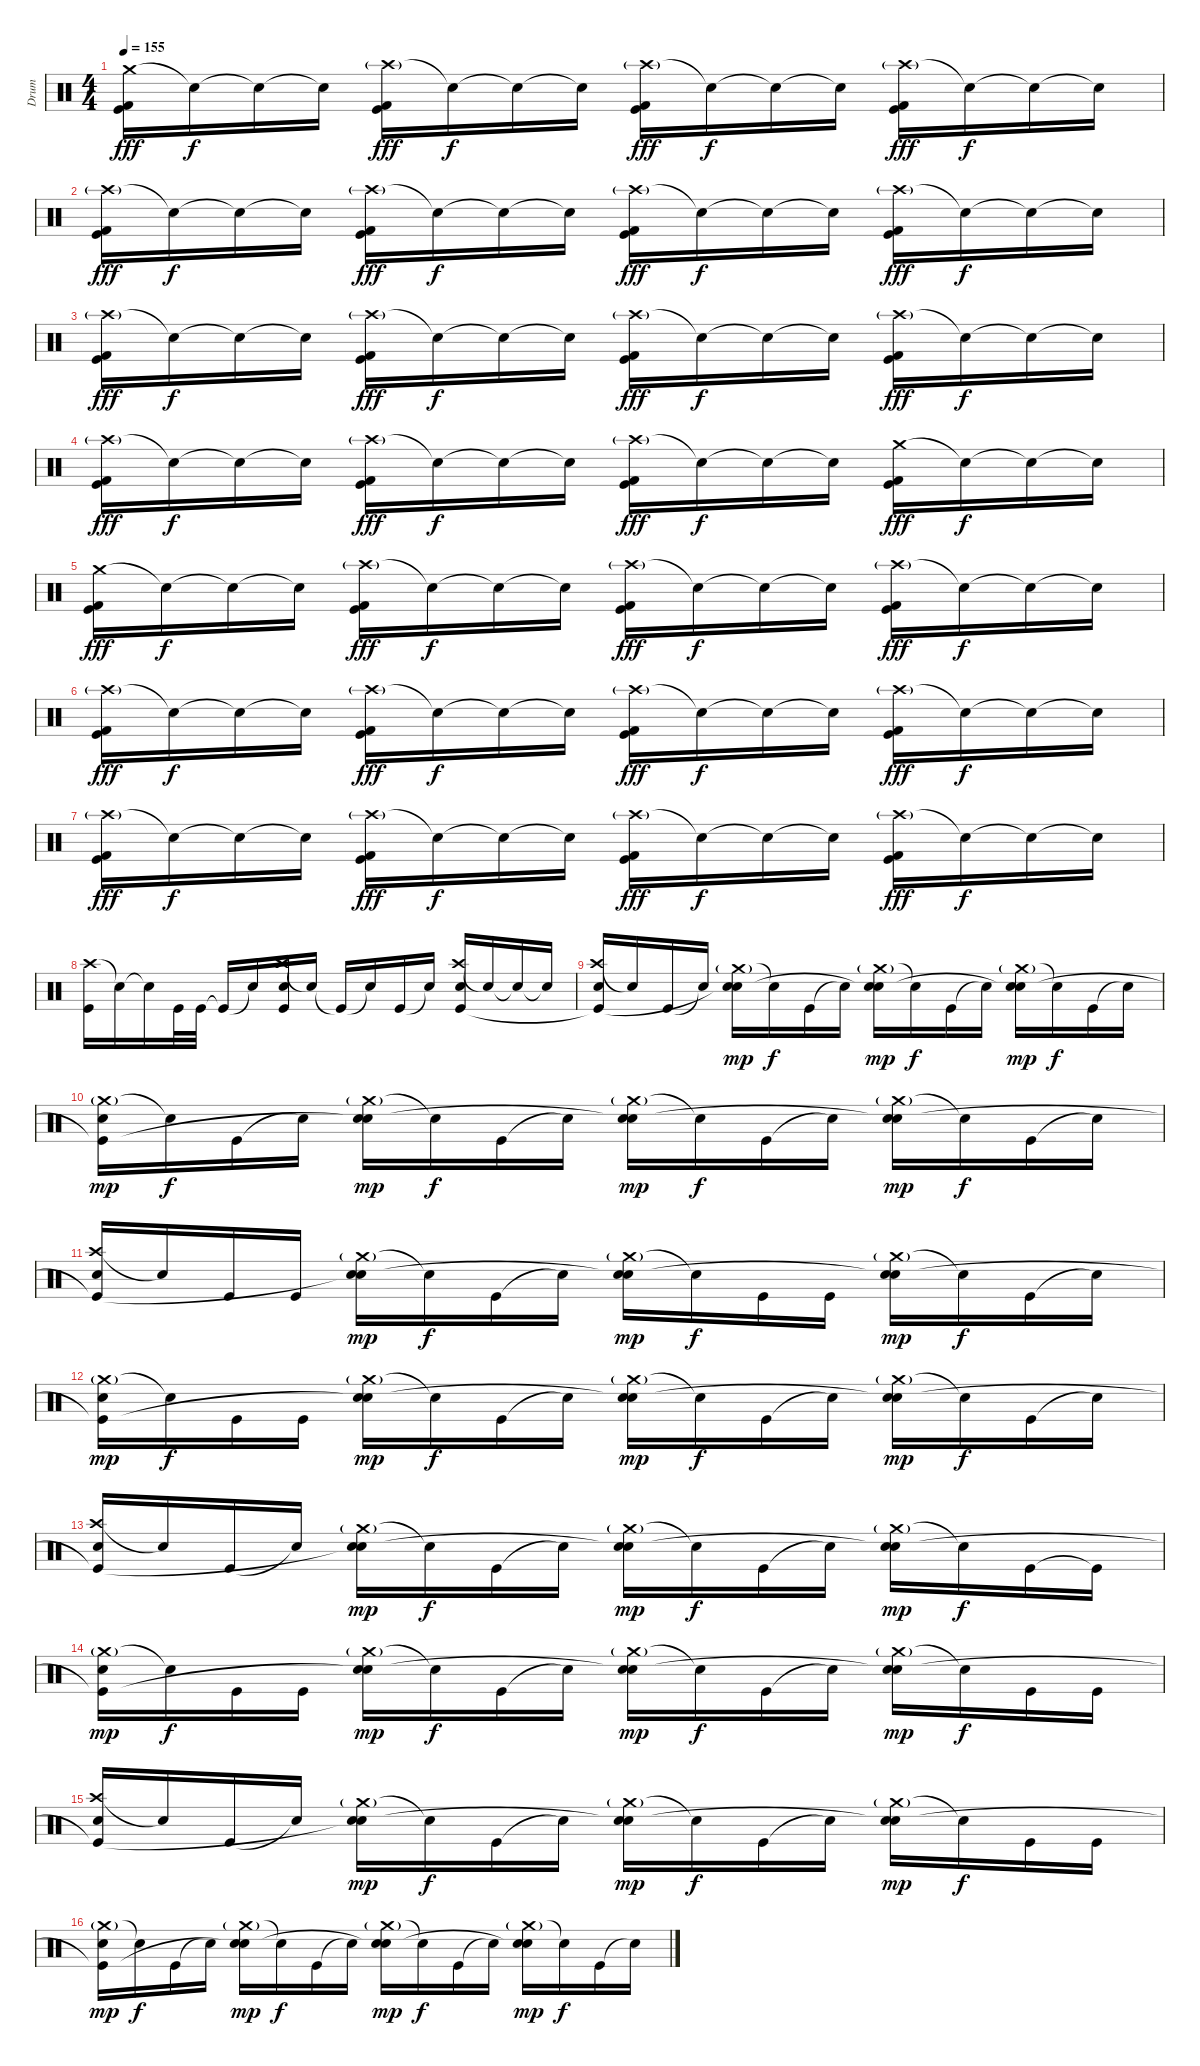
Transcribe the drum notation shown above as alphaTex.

\track ("Drum" "Drum") {instrument percussion}
\staff {score}
\articulation defaults
\ts (4 4)
\tempo 155
\clef neutral
\ks c
("Crash medium (hit)" "Kick (hit) 2" "Kick (hit)").16{dy fff} "Snare (hit)"{t}.16{dy f} "Snare (hit)"{t}.16 "Snare (hit)"{t}.16 ("Crash high (hit)"{g} "Kick (hit) 2" "Kick (hit)").16{dy fff} "Snare (hit)"{t}.16{dy f} "Snare (hit)"{t}.16 "Snare (hit)"{t}.16 ("Crash high (hit)"{g} "Kick (hit) 2" "Kick (hit)").16{dy fff} "Snare (hit)"{t}.16{dy f} "Snare (hit)"{t}.16 "Snare (hit)"{t}.16 ("Crash high (hit)"{g} "Kick (hit) 2" "Kick (hit)").16{dy fff} "Snare (hit)"{t}.16{dy f} "Snare (hit)"{t}.16 "Snare (hit)"{t}.16 |
("Crash high (hit)"{g} "Kick (hit) 2" "Kick (hit)").16{dy fff} "Snare (hit)"{t}.16{dy f} "Snare (hit)"{t}.16 "Snare (hit)"{t}.16 ("Crash high (hit)"{g} "Kick (hit) 2" "Kick (hit)").16{dy fff} "Snare (hit)"{t}.16{dy f} "Snare (hit)"{t}.16 "Snare (hit)"{t}.16 ("Crash high (hit)"{g} "Kick (hit) 2" "Kick (hit)").16{dy fff} "Snare (hit)"{t}.16{dy f} "Snare (hit)"{t}.16 "Snare (hit)"{t}.16 ("Crash high (hit)"{g} "Kick (hit) 2" "Kick (hit)").16{dy fff} "Snare (hit)"{t}.16{dy f} "Snare (hit)"{t}.16 "Snare (hit)"{t}.16 |
("Crash high (hit)"{g} "Kick (hit) 2" "Kick (hit)").16{dy fff} "Snare (hit)"{t}.16{dy f} "Snare (hit)"{t}.16 "Snare (hit)"{t}.16 ("Crash high (hit)"{g} "Kick (hit) 2" "Kick (hit)").16{dy fff} "Snare (hit)"{t}.16{dy f} "Snare (hit)"{t}.16 "Snare (hit)"{t}.16 ("Crash high (hit)"{g} "Kick (hit) 2" "Kick (hit)").16{dy fff} "Snare (hit)"{t}.16{dy f} "Snare (hit)"{t}.16 "Snare (hit)"{t}.16 ("Crash high (hit)"{g} "Kick (hit) 2" "Kick (hit)").16{dy fff} "Snare (hit)"{t}.16{dy f} "Snare (hit)"{t}.16 "Snare (hit)"{t}.16 |
("Crash high (hit)"{g} "Kick (hit) 2" "Kick (hit)").16{dy fff} "Snare (hit)"{t}.16{dy f} "Snare (hit)"{t}.16 "Snare (hit)"{t}.16 ("Crash high (hit)"{g} "Kick (hit) 2" "Kick (hit)").16{dy fff} "Snare (hit)"{t}.16{dy f} "Snare (hit)"{t}.16 "Snare (hit)"{t}.16 ("Crash high (hit)"{g} "Kick (hit) 2" "Kick (hit)").16{dy fff} "Snare (hit)"{t}.16{dy f} "Snare (hit)"{t}.16 "Snare (hit)"{t}.16 ("Crash medium (hit)" "Kick (hit) 2" "Kick (hit)").16{dy fff} "Snare (hit)"{t}.16{dy f} "Snare (hit)"{t}.16 "Snare (hit)"{t}.16 |
("Crash medium (hit)" "Kick (hit) 2" "Kick (hit)").16{dy fff} "Snare (hit)"{t}.16{dy f} "Snare (hit)"{t}.16 "Snare (hit)"{t}.16 ("Crash high (hit)"{g} "Kick (hit) 2" "Kick (hit)").16{dy fff} "Snare (hit)"{t}.16{dy f} "Snare (hit)"{t}.16 "Snare (hit)"{t}.16 ("Crash high (hit)"{g} "Kick (hit) 2" "Kick (hit)").16{dy fff} "Snare (hit)"{t}.16{dy f} "Snare (hit)"{t}.16 "Snare (hit)"{t}.16 ("Crash high (hit)"{g} "Kick (hit) 2" "Kick (hit)").16{dy fff} "Snare (hit)"{t}.16{dy f} "Snare (hit)"{t}.16 "Snare (hit)"{t}.16 |
("Crash high (hit)"{g} "Kick (hit) 2" "Kick (hit)").16{dy fff} "Snare (hit)"{t}.16{dy f} "Snare (hit)"{t}.16 "Snare (hit)"{t}.16 ("Crash high (hit)"{g} "Kick (hit) 2" "Kick (hit)").16{dy fff} "Snare (hit)"{t}.16{dy f} "Snare (hit)"{t}.16 "Snare (hit)"{t}.16 ("Crash high (hit)"{g} "Kick (hit) 2" "Kick (hit)").16{dy fff} "Snare (hit)"{t}.16{dy f} "Snare (hit)"{t}.16 "Snare (hit)"{t}.16 ("Crash high (hit)"{g} "Kick (hit) 2" "Kick (hit)").16{dy fff} "Snare (hit)"{t}.16{dy f} "Snare (hit)"{t}.16 "Snare (hit)"{t}.16 |
("Crash high (hit)"{g} "Kick (hit) 2" "Kick (hit)").16{dy fff} "Snare (hit)"{t}.16{dy f} "Snare (hit)"{t}.16 "Snare (hit)"{t}.16 ("Crash high (hit)"{g} "Kick (hit) 2" "Kick (hit)").16{dy fff} "Snare (hit)"{t}.16{dy f} "Snare (hit)"{t}.16 "Snare (hit)"{t}.16 ("Crash high (hit)"{g} "Kick (hit) 2" "Kick (hit)").16{dy fff} "Snare (hit)"{t}.16{dy f} "Snare (hit)"{t}.16 "Snare (hit)"{t}.16 ("Crash high (hit)"{g} "Kick (hit) 2" "Kick (hit)").16{dy fff} "Snare (hit)"{t}.16{dy f} "Snare (hit)"{t}.16 "Snare (hit)"{t}.16 |
("Crash high (hit)" "Kick (hit)").16 "Snare (hit)"{t}.16 "Snare (hit)"{t}.16 "Kick (hit)".32 "Kick (hit)".32 "Kick (hit)"{t}.16 "Snare (hit)"{t}.16 ("Crash high (hit)" "Electric Snare (hit)" "Kick (hit)").16 "Snare (hit)"{t}.16 "Kick (hit)"{t}.16 "Snare (hit)"{t}.16 "Kick (hit)".16 "Snare (hit)"{t}.16 ("Crash high (hit)" "Electric Snare (hit)" "Kick (hit)").16 "Snare (hit)"{t}.16 "Snare (hit)"{t}.16 "Snare (hit)"{t}.16 |
("Crash high (hit)" "Electric Snare (hit)" "Kick (hit)"{t}).16 "Snare (hit)"{t}.16 "Kick (hit)".16 "Snare (hit)"{t}.16 ("Crash medium (hit)"{g} "Electric Snare (hit)" "Snare (hit)"{t}).16{dy mp} "Snare (hit)"{t}.16{dy f} "Kick (hit)".16 "Snare (hit)"{t}.16 ("Crash medium (hit)"{g} "Electric Snare (hit)" "Snare (hit)"{t}).16{dy mp} "Snare (hit)"{t}.16{dy f} "Kick (hit)".16 "Snare (hit)"{t}.16 ("Crash medium (hit)"{g} "Electric Snare (hit)" "Snare (hit)"{t}).16{dy mp} "Snare (hit)"{t}.16{dy f} "Kick (hit)".16 "Snare (hit)"{t}.16 |
("Crash medium (hit)"{g} "Electric Snare (hit)" "Kick (hit)"{t}).16{dy mp} "Snare (hit)"{t}.16{dy f} "Kick (hit)".16 "Snare (hit)"{t}.16 ("Crash medium (hit)"{g} "Electric Snare (hit)" "Snare (hit)"{t}).16{dy mp} "Snare (hit)"{t}.16{dy f} "Kick (hit)".16 "Snare (hit)"{t}.16 ("Crash medium (hit)"{g} "Electric Snare (hit)" "Snare (hit)"{t}).16{dy mp} "Snare (hit)"{t}.16{dy f} "Kick (hit)".16 "Snare (hit)"{t}.16 ("Crash medium (hit)"{g} "Electric Snare (hit)" "Snare (hit)"{t}).16{dy mp} "Snare (hit)"{t}.16{dy f} "Kick (hit)".16 "Snare (hit)"{t}.16 |
("Crash high (hit)" "Electric Snare (hit)" "Kick (hit)"{t}).16 "Snare (hit)"{t}.16 "Kick (hit)".16 "Kick (hit)".16 ("Crash medium (hit)"{g} "Electric Snare (hit)" "Snare (hit)"{t}).16{dy mp} "Snare (hit)"{t}.16{dy f} "Kick (hit)".16 "Snare (hit)"{t}.16 ("Crash medium (hit)"{g} "Electric Snare (hit)" "Snare (hit)"{t}).16{dy mp} "Snare (hit)"{t}.16{dy f} "Kick (hit)".16 "Kick (hit)".16 ("Crash medium (hit)"{g} "Electric Snare (hit)" "Snare (hit)"{t}).16{dy mp} "Snare (hit)"{t}.16{dy f} "Kick (hit)".16 "Snare (hit)"{t}.16 |
("Crash medium (hit)"{g} "Electric Snare (hit)" "Kick (hit)"{t}).16{dy mp} "Snare (hit)"{t}.16{dy f} "Kick (hit)".16 "Kick (hit)".16 ("Crash medium (hit)"{g} "Electric Snare (hit)" "Snare (hit)"{t}).16{dy mp} "Snare (hit)"{t}.16{dy f} "Kick (hit)".16 "Snare (hit)"{t}.16 ("Crash medium (hit)"{g} "Electric Snare (hit)" "Snare (hit)"{t}).16{dy mp} "Snare (hit)"{t}.16{dy f} "Kick (hit)".16 "Snare (hit)"{t}.16 ("Crash medium (hit)"{g} "Electric Snare (hit)" "Snare (hit)"{t}).16{dy mp} "Snare (hit)"{t}.16{dy f} "Kick (hit)".16 "Snare (hit)"{t}.16 |
("Crash high (hit)" "Electric Snare (hit)" "Kick (hit)"{t}).16 "Snare (hit)"{t}.16 "Kick (hit)".16 "Snare (hit)"{t}.16 ("Crash medium (hit)"{g} "Electric Snare (hit)" "Snare (hit)"{t}).16{dy mp} "Snare (hit)"{t}.16{dy f} "Kick (hit)".16 "Snare (hit)"{t}.16 ("Crash medium (hit)"{g} "Electric Snare (hit)" "Snare (hit)"{t}).16{dy mp} "Snare (hit)"{t}.16{dy f} "Kick (hit)".16 "Snare (hit)"{t}.16 ("Crash medium (hit)"{g} "Electric Snare (hit)" "Snare (hit)"{t}).16{dy mp} "Snare (hit)"{t}.16{dy f} "Kick (hit)".16 "Kick (hit)"{t}.16 |
("Crash medium (hit)"{g} "Electric Snare (hit)" "Kick (hit)"{t}).16{dy mp} "Snare (hit)"{t}.16{dy f} "Kick (hit)".16 "Kick (hit)".16 ("Crash medium (hit)"{g} "Electric Snare (hit)" "Snare (hit)"{t}).16{dy mp} "Snare (hit)"{t}.16{dy f} "Kick (hit)".16 "Snare (hit)"{t}.16 ("Crash medium (hit)"{g} "Electric Snare (hit)" "Snare (hit)"{t}).16{dy mp} "Snare (hit)"{t}.16{dy f} "Kick (hit)".16 "Snare (hit)"{t}.16 ("Crash medium (hit)"{g} "Electric Snare (hit)" "Snare (hit)"{t}).16{dy mp} "Snare (hit)"{t}.16{dy f} "Kick (hit)".16 "Kick (hit)".16 |
("Crash high (hit)" "Electric Snare (hit)" "Kick (hit)"{t}).16 "Snare (hit)"{t}.16 "Kick (hit)".16 "Snare (hit)"{t}.16 ("Crash medium (hit)"{g} "Electric Snare (hit)" "Snare (hit)"{t}).16{dy mp} "Snare (hit)"{t}.16{dy f} "Kick (hit)".16 "Snare (hit)"{t}.16 ("Crash medium (hit)"{g} "Electric Snare (hit)" "Snare (hit)"{t}).16{dy mp} "Snare (hit)"{t}.16{dy f} "Kick (hit)".16 "Snare (hit)"{t}.16 ("Crash medium (hit)"{g} "Electric Snare (hit)" "Snare (hit)"{t}).16{dy mp} "Snare (hit)"{t}.16{dy f} "Kick (hit)".16 "Kick (hit)".16 |
("Crash medium (hit)"{g} "Electric Snare (hit)" "Kick (hit)"{t}).16{dy mp} "Snare (hit)"{t}.16{dy f} "Kick (hit)".16 "Snare (hit)"{t}.16 ("Crash medium (hit)"{g} "Electric Snare (hit)" "Snare (hit)"{t}).16{dy mp} "Snare (hit)"{t}.16{dy f} "Kick (hit)".16 "Snare (hit)"{t}.16 ("Crash medium (hit)"{g} "Electric Snare (hit)" "Snare (hit)"{t}).16{dy mp} "Snare (hit)"{t}.16{dy f} "Kick (hit)".16 "Snare (hit)"{t}.16 ("Crash medium (hit)"{g} "Electric Snare (hit)" "Snare (hit)"{t}).16{dy mp} "Snare (hit)"{t}.16{dy f} "Kick (hit)".16 "Snare (hit)"{t}.16
